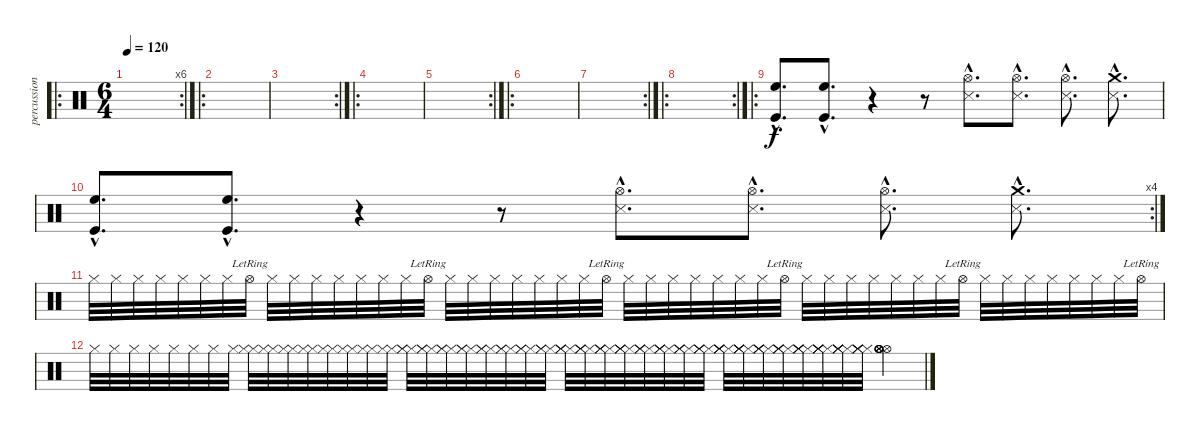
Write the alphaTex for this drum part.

\track ("percussion" "percussion") {instrument percussion}
\staff {score}
\articulation defaults
\ro
\rc 6
\ts (6 4)
\tempo 120
\clef neutral
\ks c
|
\ro
|
\rc 2
|
\ro
|
\rc 2
|
\ro
|
\rc 2
|
\ro
\rc 2
|
\ro
("High Floor Tom (hit)"{hac} "Kick (hit)"{hac}).8{d} ("High Floor Tom (hit)"{hac} "Kick (hit)"{hac}).8{d} r.4 r.8 ("Hi-Hat (open)"{hac} "Snare (side stick) 3"{hac}).8{d} ("Hi-Hat (open)"{hac} "Snare (side stick) 3"{hac}).8{d} ("Hi-Hat (open)"{hac} "Snare (side stick) 3"{hac}).8{d} ("Crash medium (hit)"{hac} "Snare (side stick) 3"{hac}).8{d} |
\rc 4
("High Floor Tom (hit)"{hac} "Kick (hit)"{hac}).8{d} ("High Floor Tom (hit)"{hac} "Kick (hit)"{hac}).8{d} r.4 r.8 ("Hi-Hat (open)"{hac} "Snare (side stick) 3"{hac}).8{d} ("Hi-Hat (open)"{hac} "Snare (side stick) 3"{hac}).8{d} ("Hi-Hat (open)"{hac} "Snare (side stick) 3"{hac}).8{d} ("Crash medium (hit)"{hac} "Snare (side stick) 3"{hac}).8{d} |
"Hi-Hat (closed)".32 "Hi-Hat (closed)".32 "Hi-Hat (closed)".32 "Hi-Hat (closed)".32 "Hi-Hat (closed)".32 "Hi-Hat (closed)".32 "Hi-Hat (closed)".32 "Hi-Hat (open)"{lr}.32 "Hi-Hat (closed)".32 "Hi-Hat (closed)".32 "Hi-Hat (closed)".32 "Hi-Hat (closed)".32 "Hi-Hat (closed)".32 "Hi-Hat (closed)".32 "Hi-Hat (closed)".32 "Hi-Hat (open)"{lr}.32 "Hi-Hat (closed)".32 "Hi-Hat (closed)".32 "Hi-Hat (closed)".32 "Hi-Hat (closed)".32 "Hi-Hat (closed)".32 "Hi-Hat (closed)".32 "Hi-Hat (closed)".32 "Hi-Hat (open)"{lr}.32 "Hi-Hat (closed)".32 "Hi-Hat (closed)".32 "Hi-Hat (closed)".32 "Hi-Hat (closed)".32 "Hi-Hat (closed)".32 "Hi-Hat (closed)".32 "Hi-Hat (closed)".32 "Hi-Hat (open)"{lr}.32 "Hi-Hat (closed)".32 "Hi-Hat (closed)".32 "Hi-Hat (closed)".32 "Hi-Hat (closed)".32 "Hi-Hat (closed)".32 "Hi-Hat (closed)".32 "Hi-Hat (closed)".32 "Hi-Hat (open)"{lr}.32 "Hi-Hat (closed)".32 "Hi-Hat (closed)".32 "Hi-Hat (closed)".32 "Hi-Hat (closed)".32 "Hi-Hat (closed)".32 "Hi-Hat (closed)".32 "Hi-Hat (closed)".32 "Hi-Hat (open)"{lr}.32 |
"Hi-Hat (closed)".32 "Hi-Hat (closed)".32 "Hi-Hat (closed)".32 "Hi-Hat (closed)".32 "Hi-Hat (closed)".32 "Hi-Hat (closed)".32 "Hi-Hat (closed)".32 "Hi-Hat (closed)".32 ("Hi-Hat (closed)" "Hi-Hat (closed)").32 ("Hi-Hat (closed)" "Hi-Hat (closed)").32 ("Hi-Hat (closed)" "Hi-Hat (closed)").32 ("Hi-Hat (closed)" "Hi-Hat (closed)").32 ("Hi-Hat (closed)" "Hi-Hat (closed)").32 ("Hi-Hat (closed)" "Hi-Hat (closed)").32 ("Hi-Hat (closed)" "Hi-Hat (closed)").32 ("Hi-Hat (closed)" "Hi-Hat (closed)").32 ("Hi-Hat (closed)" "Hi-Hat (closed)" "Hi-Hat (closed)").32 ("Hi-Hat (closed)" "Hi-Hat (closed)" "Hi-Hat (closed)").32 ("Hi-Hat (closed)" "Hi-Hat (closed)" "Hi-Hat (closed)").32 ("Hi-Hat (closed)" "Hi-Hat (closed)" "Hi-Hat (closed)").32 ("Hi-Hat (closed)" "Hi-Hat (closed)" "Hi-Hat (closed)").32 ("Hi-Hat (closed)" "Hi-Hat (closed)" "Hi-Hat (closed)").32 ("Hi-Hat (closed)" "Hi-Hat (closed)" "Hi-Hat (closed)").32 ("Hi-Hat (closed)" "Hi-Hat (closed)" "Hi-Hat (closed)").32 ("Hi-Hat (closed)" "Hi-Hat (closed)" "Hi-Hat (closed)" "Hi-Hat (closed)").32 ("Hi-Hat (closed)" "Hi-Hat (closed)" "Hi-Hat (closed)" "Hi-Hat (closed)").32 ("Hi-Hat (closed)" "Hi-Hat (closed)" "Hi-Hat (closed)" "Hi-Hat (closed)").32 ("Hi-Hat (closed)" "Hi-Hat (closed)" "Hi-Hat (closed)" "Hi-Hat (closed)").32 ("Hi-Hat (closed)" "Hi-Hat (closed)" "Hi-Hat (closed)" "Hi-Hat (closed)").32 ("Hi-Hat (closed)" "Hi-Hat (closed)" "Hi-Hat (closed)" "Hi-Hat (closed)").32 ("Hi-Hat (closed)" "Hi-Hat (closed)" "Hi-Hat (closed)" "Hi-Hat (closed)").32 ("Hi-Hat (closed)" "Hi-Hat (closed)" "Hi-Hat (closed)" "Hi-Hat (closed)").32 ("Hi-Hat (closed)" "Hi-Hat (closed)" "Hi-Hat (closed)" "Hi-Hat (closed)" "Hi-Hat (closed)").32 ("Hi-Hat (closed)" "Hi-Hat (closed)" "Hi-Hat (closed)" "Hi-Hat (closed)" "Hi-Hat (closed)").32 ("Hi-Hat (closed)" "Hi-Hat (closed)" "Hi-Hat (closed)" "Hi-Hat (closed)" "Hi-Hat (closed)").32 ("Hi-Hat (closed)" "Hi-Hat (closed)" "Hi-Hat (closed)" "Hi-Hat (closed)" "Hi-Hat (closed)").32 ("Hi-Hat (closed)" "Hi-Hat (closed)" "Hi-Hat (closed)" "Hi-Hat (closed)" "Hi-Hat (closed)").32 ("Hi-Hat (closed)" "Hi-Hat (closed)" "Hi-Hat (closed)" "Hi-Hat (closed)" "Hi-Hat (closed)").32 ("Hi-Hat (closed)" "Hi-Hat (closed)" "Hi-Hat (closed)" "Hi-Hat (closed)" "Hi-Hat (closed)").32 ("Hi-Hat (closed)" "Hi-Hat (closed)" "Hi-Hat (closed)" "Hi-Hat (closed)" "Hi-Hat (closed)").32 ("Hi-Hat (open)" "Hi-Hat (open)" "Hi-Hat (open)" "Hi-Hat (open)" "Hi-Hat (open)" "Hi-Hat (open)").4
